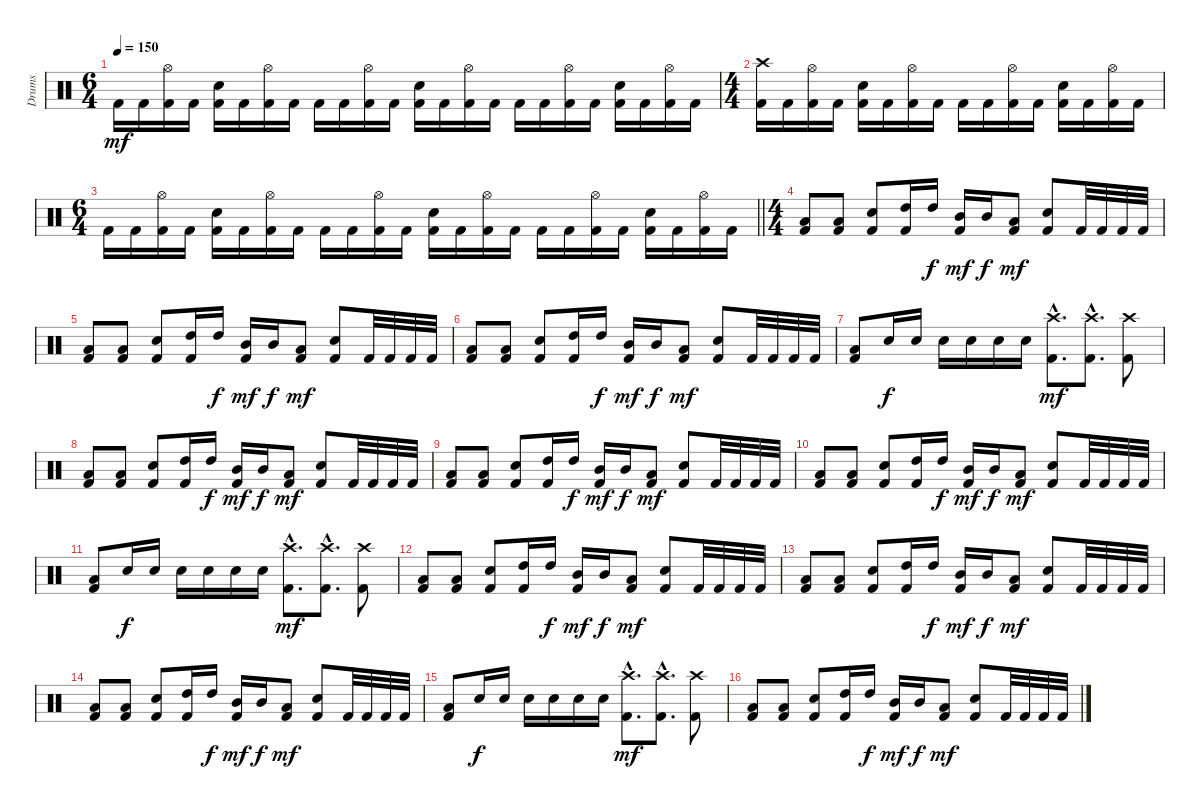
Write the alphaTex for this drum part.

\track ("Drums" "Drums") {instrument percussion}
\staff {score}
\articulation defaults
\ts (6 4)
\tempo 150
\clef neutral
\ks c "Kick (hit) 2".16{dy mf} "Kick (hit) 2".16
("Hi-Hat (open)" "Kick (hit) 2").16 "Kick (hit) 2".16 ("Electric Snare (hit)" "Kick (hit) 2").16 "Kick (hit) 2".16 ("Hi-Hat (open)" "Kick (hit) 2").16 "Kick (hit) 2".16 "Kick (hit) 2".16 "Kick (hit) 2".16 ("Hi-Hat (open)" "Kick (hit) 2").16 "Kick (hit) 2".16 ("Electric Snare (hit)" "Kick (hit) 2").16 "Kick (hit) 2".16 ("Hi-Hat (open)" "Kick (hit) 2").16 "Kick (hit) 2".16 "Kick (hit) 2".16 "Kick (hit) 2".16 ("Hi-Hat (open)" "Kick (hit) 2").16 "Kick (hit) 2".16 ("Electric Snare (hit)" "Kick (hit) 2").16 "Kick (hit) 2".16 ("Hi-Hat (open)" "Kick (hit) 2").16 "Kick (hit) 2".16 |
\ts (4 4)
("Crash high (hit)" "Kick (hit) 2").16 "Kick (hit) 2".16 ("Hi-Hat (open)" "Kick (hit) 2").16 "Kick (hit) 2".16 ("Electric Snare (hit)" "Kick (hit) 2").16 "Kick (hit) 2".16 ("Hi-Hat (open)" "Kick (hit) 2").16 "Kick (hit) 2".16 "Kick (hit) 2".16 "Kick (hit) 2".16 ("Hi-Hat (open)" "Kick (hit) 2").16 "Kick (hit) 2".16 ("Electric Snare (hit)" "Kick (hit) 2").16 "Kick (hit) 2".16 ("Hi-Hat (open)" "Kick (hit) 2").16 "Kick (hit) 2".16 |
\ts (6 4)
\barLineRight lightlight "Kick (hit) 2".16 "Kick (hit) 2".16
("Hi-Hat (open)" "Kick (hit) 2").16 "Kick (hit) 2".16 ("Electric Snare (hit)" "Kick (hit) 2").16 "Kick (hit) 2".16 ("Hi-Hat (open)" "Kick (hit) 2").16 "Kick (hit) 2".16 "Kick (hit) 2".16 "Kick (hit) 2".16 ("Hi-Hat (open)" "Kick (hit) 2").16 "Kick (hit) 2".16 ("Electric Snare (hit)" "Kick (hit) 2").16 "Kick (hit) 2".16 ("Hi-Hat (open)" "Kick (hit) 2").16 "Kick (hit) 2".16 "Kick (hit) 2".16 "Kick (hit) 2".16 ("Hi-Hat (open)" "Kick (hit) 2").16 "Kick (hit) 2".16 ("Electric Snare (hit)" "Kick (hit) 2").16 "Kick (hit) 2".16 ("Hi-Hat (open)" "Kick (hit) 2").16 "Kick (hit) 2".16 |
\ts (4 4)
\section ("" "")
("Low Tom (hit)" "Kick (hit) 2").8 ("Low Tom (hit)" "Kick (hit) 2").8 ("Electric Snare (hit)" "Kick (hit) 2").8 ("High Tom (hit)" "Kick (hit) 2").16 "High Tom (hit)".16{dy f} ("Mid Tom (hit)" "Kick (hit) 2").16{dy mf} "Mid Tom (hit)".16{dy f} ("Low Tom (hit)" "Kick (hit) 2").8{dy mf} ("Electric Snare (hit)" "Kick (hit) 2").8 "Kick (hit) 2".32 "Kick (hit) 2".32 "Kick (hit) 2".32 "Kick (hit) 2".32 |
("Low Tom (hit)" "Kick (hit) 2").8 ("Low Tom (hit)" "Kick (hit) 2").8 ("Electric Snare (hit)" "Kick (hit) 2").8 ("High Tom (hit)" "Kick (hit) 2").16 "High Tom (hit)".16{dy f} ("Mid Tom (hit)" "Kick (hit) 2").16{dy mf} "Mid Tom (hit)".16{dy f} ("Low Tom (hit)" "Kick (hit) 2").8{dy mf} ("Electric Snare (hit)" "Kick (hit) 2").8 "Kick (hit) 2".32 "Kick (hit) 2".32 "Kick (hit) 2".32 "Kick (hit) 2".32 |
("Low Tom (hit)" "Kick (hit) 2").8 ("Low Tom (hit)" "Kick (hit) 2").8 ("Electric Snare (hit)" "Kick (hit) 2").8 ("High Tom (hit)" "Kick (hit) 2").16 "High Tom (hit)".16{dy f} ("Mid Tom (hit)" "Kick (hit) 2").16{dy mf} "Mid Tom (hit)".16{dy f} ("Low Tom (hit)" "Kick (hit) 2").8{dy mf} ("Electric Snare (hit)" "Kick (hit) 2").8 "Kick (hit) 2".32 "Kick (hit) 2".32 "Kick (hit) 2".32 "Kick (hit) 2".32 |
("Low Tom (hit)" "Kick (hit) 2").8 "Electric Snare (hit)".16{dy f} "Electric Snare (hit)".16 "Electric Snare (hit)".16 "Electric Snare (hit)".16 "Electric Snare (hit)".16 "Electric Snare (hit)".16 ("Crash high (hit)"{hac} "Kick (hit) 2"{hac}).8{d dy mf} ("Crash high (hit)"{hac} "Kick (hit) 2"{hac}).8{d} ("Crash high (hit)" "Kick (hit) 2").8 |
("Low Tom (hit)" "Kick (hit) 2").8 ("Low Tom (hit)" "Kick (hit) 2").8 ("Electric Snare (hit)" "Kick (hit) 2").8 ("High Tom (hit)" "Kick (hit) 2").16 "High Tom (hit)".16{dy f} ("Mid Tom (hit)" "Kick (hit) 2").16{dy mf} "Mid Tom (hit)".16{dy f} ("Low Tom (hit)" "Kick (hit) 2").8{dy mf} ("Electric Snare (hit)" "Kick (hit) 2").8 "Kick (hit) 2".32 "Kick (hit) 2".32 "Kick (hit) 2".32 "Kick (hit) 2".32 |
("Low Tom (hit)" "Kick (hit) 2").8 ("Low Tom (hit)" "Kick (hit) 2").8 ("Electric Snare (hit)" "Kick (hit) 2").8 ("High Tom (hit)" "Kick (hit) 2").16 "High Tom (hit)".16{dy f} ("Mid Tom (hit)" "Kick (hit) 2").16{dy mf} "Mid Tom (hit)".16{dy f} ("Low Tom (hit)" "Kick (hit) 2").8{dy mf} ("Electric Snare (hit)" "Kick (hit) 2").8 "Kick (hit) 2".32 "Kick (hit) 2".32 "Kick (hit) 2".32 "Kick (hit) 2".32 |
("Low Tom (hit)" "Kick (hit) 2").8 ("Low Tom (hit)" "Kick (hit) 2").8 ("Electric Snare (hit)" "Kick (hit) 2").8 ("High Tom (hit)" "Kick (hit) 2").16 "High Tom (hit)".16{dy f} ("Mid Tom (hit)" "Kick (hit) 2").16{dy mf} "Mid Tom (hit)".16{dy f} ("Low Tom (hit)" "Kick (hit) 2").8{dy mf} ("Electric Snare (hit)" "Kick (hit) 2").8 "Kick (hit) 2".32 "Kick (hit) 2".32 "Kick (hit) 2".32 "Kick (hit) 2".32 |
("Low Tom (hit)" "Kick (hit) 2").8 "Electric Snare (hit)".16{dy f} "Electric Snare (hit)".16 "Electric Snare (hit)".16 "Electric Snare (hit)".16 "Electric Snare (hit)".16 "Electric Snare (hit)".16 ("Crash high (hit)"{hac} "Kick (hit) 2"{hac}).8{d dy mf} ("Crash high (hit)"{hac} "Kick (hit) 2"{hac}).8{d} ("Crash high (hit)" "Kick (hit) 2").8 |
("Low Tom (hit)" "Kick (hit) 2").8 ("Low Tom (hit)" "Kick (hit) 2").8 ("Electric Snare (hit)" "Kick (hit) 2").8 ("High Tom (hit)" "Kick (hit) 2").16 "High Tom (hit)".16{dy f} ("Mid Tom (hit)" "Kick (hit) 2").16{dy mf} "Mid Tom (hit)".16{dy f} ("Low Tom (hit)" "Kick (hit) 2").8{dy mf} ("Electric Snare (hit)" "Kick (hit) 2").8 "Kick (hit) 2".32 "Kick (hit) 2".32 "Kick (hit) 2".32 "Kick (hit) 2".32 |
("Low Tom (hit)" "Kick (hit) 2").8 ("Low Tom (hit)" "Kick (hit) 2").8 ("Electric Snare (hit)" "Kick (hit) 2").8 ("High Tom (hit)" "Kick (hit) 2").16 "High Tom (hit)".16{dy f} ("Mid Tom (hit)" "Kick (hit) 2").16{dy mf} "Mid Tom (hit)".16{dy f} ("Low Tom (hit)" "Kick (hit) 2").8{dy mf} ("Electric Snare (hit)" "Kick (hit) 2").8 "Kick (hit) 2".32 "Kick (hit) 2".32 "Kick (hit) 2".32 "Kick (hit) 2".32 |
("Low Tom (hit)" "Kick (hit) 2").8 ("Low Tom (hit)" "Kick (hit) 2").8 ("Electric Snare (hit)" "Kick (hit) 2").8 ("High Tom (hit)" "Kick (hit) 2").16 "High Tom (hit)".16{dy f} ("Mid Tom (hit)" "Kick (hit) 2").16{dy mf} "Mid Tom (hit)".16{dy f} ("Low Tom (hit)" "Kick (hit) 2").8{dy mf} ("Electric Snare (hit)" "Kick (hit) 2").8 "Kick (hit) 2".32 "Kick (hit) 2".32 "Kick (hit) 2".32 "Kick (hit) 2".32 |
("Low Tom (hit)" "Kick (hit) 2").8 "Electric Snare (hit)".16{dy f} "Electric Snare (hit)".16 "Electric Snare (hit)".16 "Electric Snare (hit)".16 "Electric Snare (hit)".16 "Electric Snare (hit)".16 ("Crash high (hit)"{hac} "Kick (hit) 2"{hac}).8{d dy mf} ("Crash high (hit)"{hac} "Kick (hit) 2"{hac}).8{d} ("Crash high (hit)" "Kick (hit) 2").8 |
("Low Tom (hit)" "Kick (hit) 2").8 ("Low Tom (hit)" "Kick (hit) 2").8 ("Electric Snare (hit)" "Kick (hit) 2").8 ("High Tom (hit)" "Kick (hit) 2").16 "High Tom (hit)".16{dy f} ("Mid Tom (hit)" "Kick (hit) 2").16{dy mf} "Mid Tom (hit)".16{dy f} ("Low Tom (hit)" "Kick (hit) 2").8{dy mf} ("Electric Snare (hit)" "Kick (hit) 2").8 "Kick (hit) 2".32 "Kick (hit) 2".32 "Kick (hit) 2".32 "Kick (hit) 2".32
